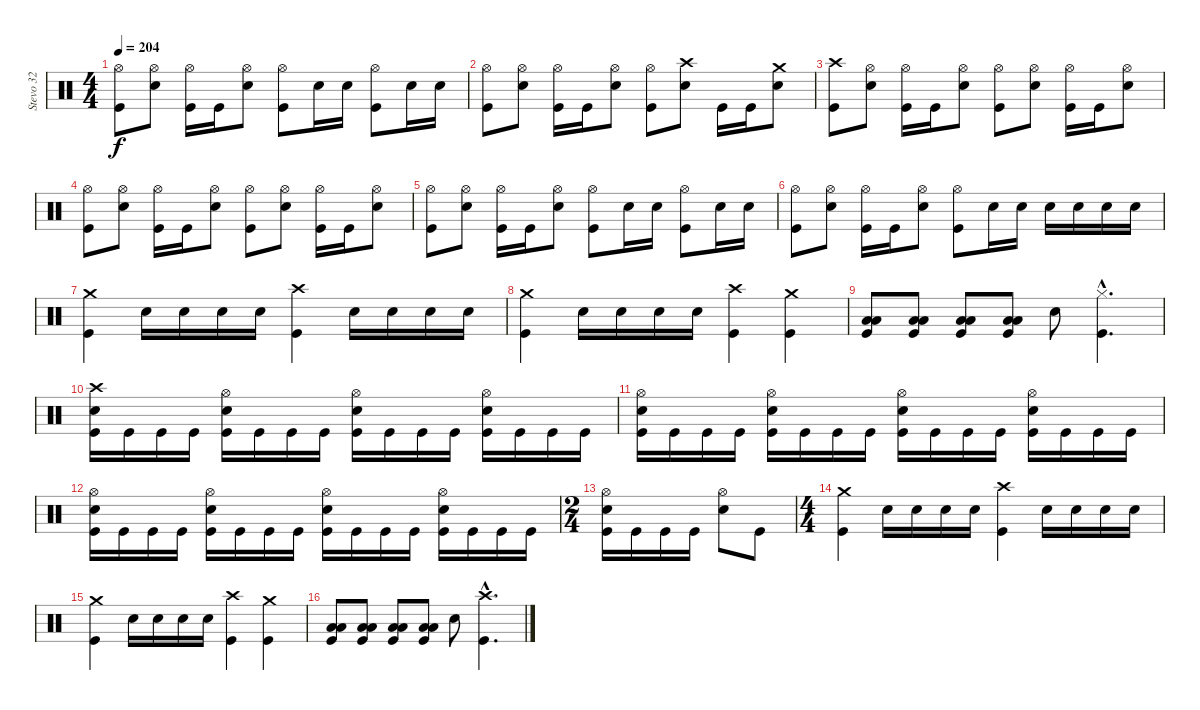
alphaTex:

\track ("Stevo 32" "Stevo 32") {instrument percussion}
\staff {score}
\articulation defaults
\ts (4 4)
\tempo 204
\clef neutral
\ks c
("Hi-Hat (open)" "Kick (hit)").8{dy f} ("Hi-Hat (open)" "Electric Snare (hit)").8 ("Hi-Hat (open)" "Kick (hit)").16 "Kick (hit)".16 ("Hi-Hat (open)" "Electric Snare (hit)").8 ("Hi-Hat (open)" "Kick (hit)").8 "Electric Snare (hit)".16 "Electric Snare (hit)".16 ("Hi-Hat (open)" "Kick (hit)").8 "Electric Snare (hit)".16 "Electric Snare (hit)".16 |
("Hi-Hat (open)" "Kick (hit)").8 ("Hi-Hat (open)" "Electric Snare (hit)").8 ("Hi-Hat (open)" "Kick (hit)").16 "Kick (hit)".16 ("Hi-Hat (open)" "Electric Snare (hit)").8 ("Hi-Hat (open)" "Kick (hit)").8 ("Crash high (hit)" "Electric Snare (hit)").8 "Kick (hit)".16 "Kick (hit)".16 ("Crash medium (hit)" "Electric Snare (hit)").8 |
("Crash high (hit)" "Kick (hit)").8 ("Hi-Hat (open)" "Electric Snare (hit)").8 ("Hi-Hat (open)" "Kick (hit)").16 "Kick (hit)".16 ("Hi-Hat (open)" "Electric Snare (hit)").8 ("Hi-Hat (open)" "Kick (hit)").8 ("Hi-Hat (open)" "Electric Snare (hit)").8 ("Hi-Hat (open)" "Kick (hit)").16 "Kick (hit)".16 ("Hi-Hat (open)" "Electric Snare (hit)").8 |
("Hi-Hat (open)" "Kick (hit)").8 ("Hi-Hat (open)" "Electric Snare (hit)").8 ("Hi-Hat (open)" "Kick (hit)").16 "Kick (hit)".16 ("Hi-Hat (open)" "Electric Snare (hit)").8 ("Hi-Hat (open)" "Kick (hit)").8 ("Hi-Hat (open)" "Electric Snare (hit)").8 ("Hi-Hat (open)" "Kick (hit)").16 "Kick (hit)".16 ("Hi-Hat (open)" "Electric Snare (hit)").8 |
("Hi-Hat (open)" "Kick (hit)").8 ("Hi-Hat (open)" "Electric Snare (hit)").8 ("Hi-Hat (open)" "Kick (hit)").16 "Kick (hit)".16 ("Hi-Hat (open)" "Electric Snare (hit)").8 ("Hi-Hat (open)" "Kick (hit)").8 "Electric Snare (hit)".16 "Electric Snare (hit)".16 ("Hi-Hat (open)" "Kick (hit)").8 "Electric Snare (hit)".16 "Electric Snare (hit)".16 |
("Hi-Hat (open)" "Kick (hit)").8 ("Hi-Hat (open)" "Electric Snare (hit)").8 ("Hi-Hat (open)" "Kick (hit)").16 "Kick (hit)".16 ("Hi-Hat (open)" "Electric Snare (hit)").8 ("Hi-Hat (open)" "Kick (hit)").8 "Electric Snare (hit)".16 "Electric Snare (hit)".16 "Electric Snare (hit)".16 "Electric Snare (hit)".16 "Electric Snare (hit)".16 "Electric Snare (hit)".16 |
("Crash medium (hit)" "Kick (hit)").4 "Electric Snare (hit)".16 "Electric Snare (hit)".16 "Electric Snare (hit)".16 "Electric Snare (hit)".16 ("Crash high (hit)" "Kick (hit)").4 "Electric Snare (hit)".16 "Electric Snare (hit)".16 "Electric Snare (hit)".16 "Electric Snare (hit)".16 |
("Crash medium (hit)" "Kick (hit)").4 "Electric Snare (hit)".16 "Electric Snare (hit)".16 "Electric Snare (hit)".16 "Electric Snare (hit)".16 ("Crash high (hit)" "Kick (hit)").4 ("Crash medium (hit)" "Kick (hit)").4 |
("Low Tom (hit)" "Low Floor Tom (hit)" "Kick (hit)").8 ("Low Tom (hit)" "Low Floor Tom (hit)" "Kick (hit)").8 ("Low Tom (hit)" "Low Floor Tom (hit)" "Kick (hit)").8 ("Low Tom (hit)" "Low Floor Tom (hit)" "Kick (hit)").8 "Electric Snare (hit)".8 ("Hi-Hat (closed)"{hac} "Kick (hit)"{hac}).4{d} |
("Crash high (hit)" "Electric Snare (hit)" "Kick (hit)").16 "Kick (hit)".16 "Kick (hit)".16 "Kick (hit)".16 ("Hi-Hat (open)" "Electric Snare (hit)" "Kick (hit)").16 "Kick (hit)".16 "Kick (hit)".16 "Kick (hit)".16 ("Hi-Hat (open)" "Electric Snare (hit)" "Kick (hit)").16 "Kick (hit)".16 "Kick (hit)".16 "Kick (hit)".16 ("Hi-Hat (open)" "Electric Snare (hit)" "Kick (hit)").16 "Kick (hit)".16 "Kick (hit)".16 "Kick (hit)".16 |
("Hi-Hat (open)" "Electric Snare (hit)" "Kick (hit)").16 "Kick (hit)".16 "Kick (hit)".16 "Kick (hit)".16 ("Hi-Hat (open)" "Electric Snare (hit)" "Kick (hit)").16 "Kick (hit)".16 "Kick (hit)".16 "Kick (hit)".16 ("Hi-Hat (open)" "Electric Snare (hit)" "Kick (hit)").16 "Kick (hit)".16 "Kick (hit)".16 "Kick (hit)".16 ("Hi-Hat (open)" "Electric Snare (hit)" "Kick (hit)").16 "Kick (hit)".16 "Kick (hit)".16 "Kick (hit)".16 |
("Hi-Hat (open)" "Electric Snare (hit)" "Kick (hit)").16 "Kick (hit)".16 "Kick (hit)".16 "Kick (hit)".16 ("Hi-Hat (open)" "Electric Snare (hit)" "Kick (hit)").16 "Kick (hit)".16 "Kick (hit)".16 "Kick (hit)".16 ("Hi-Hat (open)" "Electric Snare (hit)" "Kick (hit)").16 "Kick (hit)".16 "Kick (hit)".16 "Kick (hit)".16 ("Hi-Hat (open)" "Electric Snare (hit)" "Kick (hit)").16 "Kick (hit)".16 "Kick (hit)".16 "Kick (hit)".16 |
\ts (2 4)
("Hi-Hat (open)" "Electric Snare (hit)" "Kick (hit)").16 "Kick (hit)".16 "Kick (hit)".16 "Kick (hit)".16 ("Hi-Hat (open)" "Electric Snare (hit)").8 "Kick (hit)".8 |
\ts (4 4)
("Crash medium (hit)" "Kick (hit)").4 "Electric Snare (hit)".16 "Electric Snare (hit)".16 "Electric Snare (hit)".16 "Electric Snare (hit)".16 ("Crash high (hit)" "Kick (hit)").4 "Electric Snare (hit)".16 "Electric Snare (hit)".16 "Electric Snare (hit)".16 "Electric Snare (hit)".16 |
("Crash medium (hit)" "Kick (hit)").4 "Electric Snare (hit)".16 "Electric Snare (hit)".16 "Electric Snare (hit)".16 "Electric Snare (hit)".16 ("Crash high (hit)" "Kick (hit)").4 ("Crash medium (hit)" "Kick (hit)").4 |
("Low Tom (hit)" "Low Floor Tom (hit)" "Kick (hit)").8 ("Low Tom (hit)" "Low Floor Tom (hit)" "Kick (hit)").8 ("Low Tom (hit)" "Low Floor Tom (hit)" "Kick (hit)").8 ("Low Tom (hit)" "Low Floor Tom (hit)" "Kick (hit)").8 "Electric Snare (hit)".8 ("Crash high (hit)"{hac} "Kick (hit)"{hac}).4{d}
